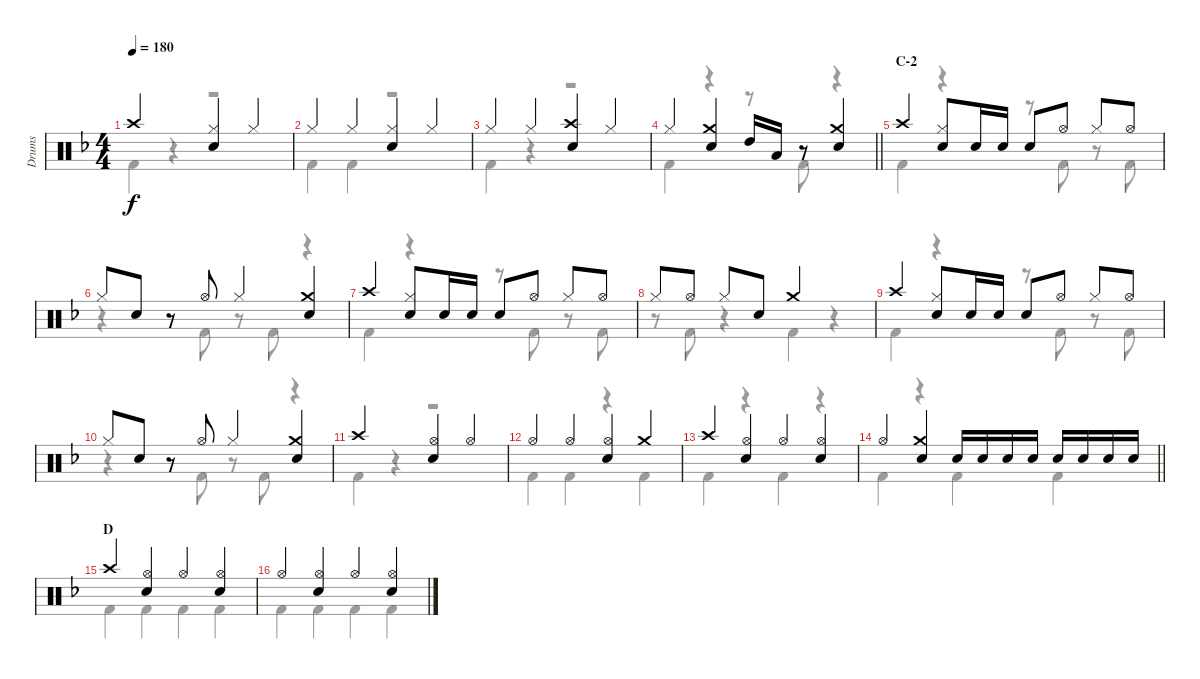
\track ("Drums" "Drums") {instrument percussion}
\staff {score}
\articulation defaults
\voice
\ts (4 4)
\tempo 180
\clef neutral
\ks f "Crash high (hit)".2{dy f}
("Hi-Hat (closed)" "Snare (hit) 2").4 "Hi-Hat (closed)".4 |
"Hi-Hat (closed)".4 "Hi-Hat (closed)".4 ("Hi-Hat (closed)" "Snare (hit) 2").4 "Hi-Hat (closed)".4 |
"Hi-Hat (closed)".4 "Hi-Hat (closed)".4 ("Crash high (hit)" "Snare (hit) 2").4 "Hi-Hat (closed)".4 |
\barLineRight lightlight "Hi-Hat (closed)".4
("Crash medium (hit)" "Snare (hit) 2").4 "High Tom (hit)".16 "Low Tom (hit)".16 r.8 ("Crash medium (hit)" "Snare (hit) 2").4 |
\section ("" "C-2")
"Crash high (hit)".4 ("Hi-Hat (closed)" "Snare (hit) 2").8 "Snare (hit) 2".16 "Snare (hit) 2".16 "Snare (hit) 2".8 "Hi-Hat (open)".8 "Hi-Hat (closed)".8 "Hi-Hat (open)".8 |
"Hi-Hat (closed)".8 "Snare (hit) 2".8 r.8 "Hi-Hat (open)".8 "Hi-Hat (closed)".4 ("Crash medium (hit)" "Snare (hit) 2").4 |
"Crash high (hit)".4 ("Hi-Hat (closed)" "Snare (hit) 2").8 "Snare (hit) 2".16 "Snare (hit) 2".16 "Snare (hit) 2".8 "Hi-Hat (open)".8 "Hi-Hat (closed)".8 "Hi-Hat (open)".8 |
"Hi-Hat (closed)".8 "Hi-Hat (open)".8 "Hi-Hat (closed)".8 "Snare (hit) 2".8 "Crash medium (hit)".2 |
"Crash high (hit)".4 ("Hi-Hat (closed)" "Snare (hit) 2").8 "Snare (hit) 2".16 "Snare (hit) 2".16 "Snare (hit) 2".8 "Hi-Hat (open)".8 "Hi-Hat (closed)".8 "Hi-Hat (open)".8 |
"Hi-Hat (closed)".8 "Snare (hit) 2".8 r.8 "Hi-Hat (open)".8 "Hi-Hat (closed)".4 ("Crash medium (hit)" "Snare (hit) 2").4 |
"Crash high (hit)".2 ("Hi-Hat (open)" "Snare (hit) 2").4 "Hi-Hat (open)".4 |
"Hi-Hat (open)".4 "Hi-Hat (open)".4 ("Hi-Hat (open)" "Snare (hit) 2").4 "Crash medium (hit)".4 |
"Crash high (hit)".4 ("Hi-Hat (open)" "Snare (hit) 2").4 "Hi-Hat (open)".4 ("Hi-Hat (open)" "Snare (hit) 2").4 |
\barLineRight lightlight "Hi-Hat (open)".4
("Crash medium (hit)" "Snare (hit) 2").4 "Snare (hit) 2".16 "Snare (hit) 2".16 "Snare (hit) 2".16 "Snare (hit) 2".16 "Snare (hit) 2".16 "Snare (hit) 2".16 "Snare (hit) 2".16 "Snare (hit) 2".16 |
\section ("" "D")
"Crash high (hit)".4 ("Hi-Hat (open)" "Snare (hit) 2").4 "Hi-Hat (open)".4 ("Hi-Hat (open)" "Snare (hit) 2").4 |
"Hi-Hat (open)".4 ("Hi-Hat (open)" "Snare (hit) 2").4 "Hi-Hat (open)".4 ("Hi-Hat (open)" "Snare (hit) 2").4
\voice
\clef neutral
\ottava regular
\simile none
\ks f "Kick (hit) 2".4{dy f}
r.4 r.2 |
"Kick (hit) 2".4 "Kick (hit) 2".4 r.2 |
"Kick (hit) 2".4 r.4 r.2 |
\barLineRight lightlight "Kick (hit) 2".4
r.4 r.8 "Kick (hit) 2".8 r.4 |
"Kick (hit) 2".4 r.4 r.8 "Kick (hit) 2".8 r.8 "Kick (hit) 2".8 |
r.4 r.8 "Kick (hit) 2".8 r.8 "Kick (hit) 2".8 r.4 |
"Kick (hit) 2".4 r.4 r.8 "Kick (hit) 2".8 r.8 "Kick (hit) 2".8 |
r.8 "Kick (hit) 2".8 r.4 "Kick (hit) 2".4 r.4 |
"Kick (hit) 2".4 r.4 r.8 "Kick (hit) 2".8 r.8 "Kick (hit) 2".8 |
r.4 r.8 "Kick (hit) 2".8 r.8 "Kick (hit) 2".8 r.4 |
"Kick (hit) 2".4 r.4 r.2 |
"Kick (hit) 2".4 "Kick (hit) 2".4 r.4 "Kick (hit) 2".4 |
"Kick (hit) 2".4 r.4 "Kick (hit) 2".4 r.4 |
\barLineRight lightlight "Kick (hit) 2".4
r.4 "Kick (hit) 2".4 "Kick (hit) 2".4 |
"Kick (hit) 2".4 "Kick (hit) 2".4 "Kick (hit) 2".4 "Kick (hit) 2".4 |
"Kick (hit) 2".4 "Kick (hit) 2".4 "Kick (hit) 2".4 "Kick (hit) 2".4
